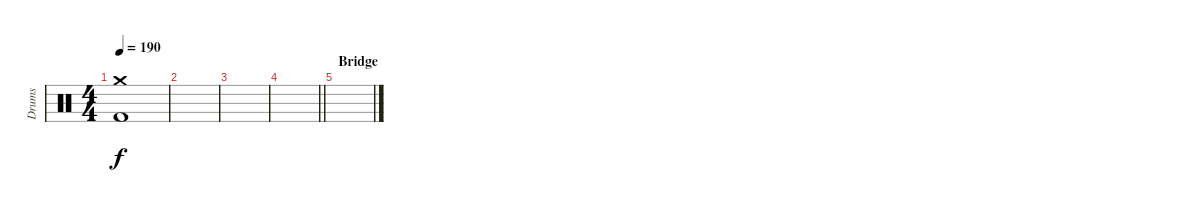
\track ("Drums" "Drums") {instrument percussion}
\staff {score}
\articulation defaults
\ts (4 4)
\tempo 190
\clef neutral
\ks c
("Crash medium (hit)" "Kick (hit) 2").1{dy f} |
|
|
\barLineRight lightlight
|
\section ("" "Bridge")
